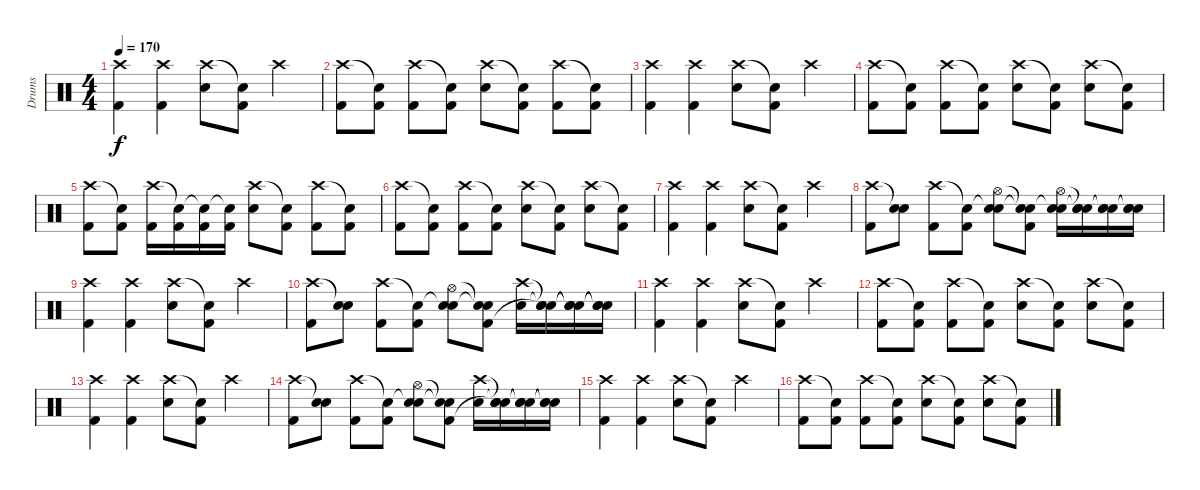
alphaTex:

\track ("Drums" "Drums") {instrument percussion}
\staff {score}
\articulation defaults
\ts (4 4)
\tempo 170
\clef neutral
\ks c
("Crash high (hit)" "Kick (hit) 2").4{dy f} ("Crash high (hit)" "Kick (hit) 2").4 ("Crash high (hit)" "Snare (hit) 2").8 ("Snare (hit)"{t} "Kick (hit) 2").8 "Crash high (hit)".4 |
("Crash high (hit)" "Kick (hit) 2").8 ("Snare (hit)"{t} "Kick (hit) 2").8 ("Crash high (hit)" "Kick (hit) 2").8 ("Snare (hit)"{t} "Kick (hit) 2").8 ("Crash high (hit)" "Snare (hit) 2").8 ("Snare (hit)"{t} "Kick (hit) 2").8 ("Crash high (hit)" "Kick (hit) 2").8 ("Snare (hit)"{t} "Kick (hit) 2").8 |
("Crash high (hit)" "Kick (hit) 2").4 ("Crash high (hit)" "Kick (hit) 2").4 ("Crash high (hit)" "Snare (hit) 2").8 ("Snare (hit)"{t} "Kick (hit) 2").8 "Crash high (hit)".4 |
("Crash high (hit)" "Kick (hit) 2").8 ("Snare (hit)"{t} "Kick (hit) 2").8 ("Crash high (hit)" "Kick (hit) 2").8 ("Snare (hit)"{t} "Kick (hit) 2").8 ("Crash high (hit)" "Snare (hit) 2").8 ("Snare (hit)"{t} "Kick (hit) 2").8 ("Crash high (hit)" "Snare (hit) 2").8 ("Snare (hit)"{t} "Kick (hit) 2").8 |
("Crash high (hit)" "Kick (hit) 2").8 ("Snare (hit)"{t} "Kick (hit) 2").8 ("Crash high (hit)" "Kick (hit) 2").16 ("Snare (hit)"{t} "Kick (hit) 2").16 ("Snare (hit)"{t} "Kick (hit) 2").16 ("Snare (hit)"{t} "Kick (hit) 2").16 ("Crash high (hit)" "Snare (hit) 2").8 ("Snare (hit)"{t} "Kick (hit) 2").8 ("Crash high (hit)" "Kick (hit) 2").8 ("Snare (hit)"{t} "Kick (hit) 2").8 |
("Crash high (hit)" "Kick (hit) 2").8 ("Snare (hit)"{t} "Kick (hit) 2").8 ("Crash high (hit)" "Kick (hit) 2").8 ("Snare (hit)"{t} "Kick (hit) 2").8 ("Crash high (hit)" "Snare (hit) 2").8 ("Snare (hit)"{t} "Kick (hit) 2").8 ("Crash high (hit)" "Snare (hit) 2").8 ("Snare (hit)"{t} "Kick (hit) 2").8 |
("Crash high (hit)" "Kick (hit) 2").4 ("Crash high (hit)" "Kick (hit) 2").4 ("Crash high (hit)" "Snare (hit) 2").8 ("Snare (hit)"{t} "Kick (hit) 2").8 "Crash high (hit)".4 |
("Crash high (hit)" "Kick (hit) 2").8 ("Snare (hit)"{t} "Snare (hit) 2").8 ("Crash high (hit)" "Kick (hit) 2").8 ("Snare (hit)"{t} "Kick (hit) 2").8 ("Snare (hit)"{t} "Hi-Hat (open)" "Snare (hit) 2").8 ("Snare (hit)"{t} "Snare (hit)"{t} "Kick (hit) 2").8 ("Snare (hit)"{t} "Hi-Hat (open)" "Snare (hit) 2").16 ("Snare (hit)"{t} "Snare (hit)"{t} "Snare (hit) 2").16 ("Snare (hit)"{t} "Snare (hit)"{t} "Snare (hit) 2").16 ("Snare (hit)"{t} "Snare (hit)"{t} "Snare (hit) 2").16 |
("Crash high (hit)" "Kick (hit) 2").4 ("Crash high (hit)" "Kick (hit) 2").4 ("Crash high (hit)" "Snare (hit) 2").8 ("Snare (hit)"{t} "Kick (hit) 2").8 "Crash high (hit)".4 |
("Crash high (hit)" "Kick (hit) 2").8 ("Snare (hit)"{t} "Snare (hit) 2").8 ("Crash high (hit)" "Kick (hit) 2").8 ("Snare (hit)"{t} "Kick (hit) 2").8 ("Snare (hit)"{t} "Hi-Hat (open)" "Snare (hit) 2").8 ("Snare (hit)"{t} "Snare (hit)"{t} "Kick (hit) 2").8 ("Crash high (hit)" "Snare (hit) 2").16 ("Snare (hit)"{t} "Snare (hit)"{t} "Snare (hit) 2"{t}).16 ("Snare (hit)"{t} "Snare (hit)"{t} "Snare (hit) 2"{t}).16 ("Snare (hit)"{t} "Snare (hit)"{t} "Snare (hit) 2"{t}).16 |
("Crash high (hit)" "Kick (hit) 2").4 ("Crash high (hit)" "Kick (hit) 2").4 ("Crash high (hit)" "Snare (hit) 2").8 ("Snare (hit)"{t} "Kick (hit) 2").8 "Crash high (hit)".4 |
("Crash high (hit)" "Kick (hit) 2").8 ("Snare (hit)"{t} "Kick (hit) 2").8 ("Crash high (hit)" "Kick (hit) 2").8 ("Snare (hit)"{t} "Kick (hit) 2").8 ("Crash high (hit)" "Snare (hit) 2").8 ("Snare (hit)"{t} "Kick (hit) 2").8 ("Crash high (hit)" "Snare (hit) 2").8 ("Snare (hit)"{t} "Kick (hit) 2").8 |
("Crash high (hit)" "Kick (hit) 2").4 ("Crash high (hit)" "Kick (hit) 2").4 ("Crash high (hit)" "Snare (hit) 2").8 ("Snare (hit)"{t} "Kick (hit) 2").8 "Crash high (hit)".4 |
("Crash high (hit)" "Kick (hit) 2").8 ("Snare (hit)"{t} "Snare (hit) 2").8 ("Crash high (hit)" "Kick (hit) 2").8 ("Snare (hit)"{t} "Kick (hit) 2").8 ("Snare (hit)"{t} "Hi-Hat (open)" "Snare (hit) 2").8 ("Snare (hit)"{t} "Snare (hit)"{t} "Kick (hit) 2").8 ("Crash high (hit)" "Snare (hit) 2").16 ("Snare (hit)"{t} "Snare (hit)"{t} "Snare (hit) 2"{t}).16 ("Snare (hit)"{t} "Snare (hit)"{t} "Snare (hit) 2"{t}).16 ("Snare (hit)"{t} "Snare (hit)"{t} "Snare (hit) 2"{t}).16 |
("Crash high (hit)" "Kick (hit) 2").4 ("Crash high (hit)" "Kick (hit) 2").4 ("Crash high (hit)" "Snare (hit) 2").8 ("Snare (hit)"{t} "Kick (hit) 2").8 "Crash high (hit)".4 |
("Crash high (hit)" "Kick (hit) 2").8 ("Snare (hit)"{t} "Kick (hit) 2").8 ("Crash high (hit)" "Kick (hit) 2").8 ("Snare (hit)"{t} "Kick (hit) 2").8 ("Crash high (hit)" "Snare (hit) 2").8 ("Snare (hit)"{t} "Kick (hit) 2").8 ("Crash high (hit)" "Snare (hit) 2").8 ("Snare (hit)"{t} "Kick (hit) 2").8
